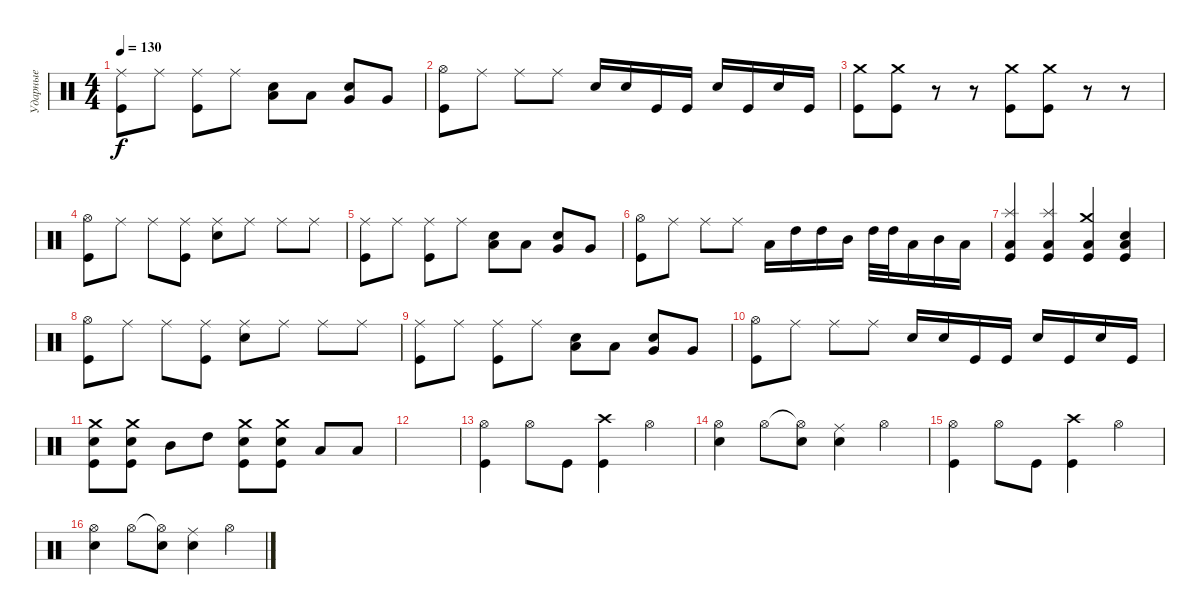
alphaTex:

\track ("Ударные" "Ударные") {instrument percussion}
\staff {score}
\articulation defaults
\ts (4 4)
\tempo 130
\clef neutral
\ks c
("Kick (hit)" "Ride (middle)").8{dy f} "Ride (middle)".8 ("Kick (hit)" "Ride (middle)").8 "Ride (middle)".8 ("Low Tom (hit)" "Electric Snare (hit)").8 "Low Tom (hit)".8 ("Very Low Tom (hit)" "Electric Snare (hit)").8 "Very Low Tom (hit)".8 |
("Kick (hit)" "Hi-Hat (open)").8 "Ride (middle)".8 "Ride (middle)".8 "Ride (middle)".8 "Electric Snare (hit)".16 "Electric Snare (hit)".16 "Kick (hit)".16 "Kick (hit)".16 "Electric Snare (hit)".16 "Kick (hit)".16 "Electric Snare (hit)".16 "Kick (hit)".16 |
("Crash medium (hit)" "Kick (hit)").8 ("Crash medium (hit)" "Kick (hit)").8 r.8 r.8 ("Crash medium (hit)" "Kick (hit)").8 ("Crash medium (hit)" "Kick (hit)").8 r.8 r.8 |
("Kick (hit)" "Hi-Hat (open)").8 "Ride (middle)".8 "Ride (middle)".8 ("Kick (hit)" "Ride (middle)").8 ("Electric Snare (hit)" "Ride (middle)").8 "Ride (middle)".8 "Ride (middle)".8 "Ride (middle)".8 |
("Kick (hit)" "Ride (middle)").8 "Ride (middle)".8 ("Kick (hit)" "Ride (middle)").8 "Ride (middle)".8 ("Low Tom (hit)" "Electric Snare (hit)").8 "Low Tom (hit)".8 ("Very Low Tom (hit)" "Electric Snare (hit)").8 "Very Low Tom (hit)".8 |
("Kick (hit)" "Hi-Hat (open)").8 "Ride (middle)".8 "Ride (middle)".8 "Ride (middle)".8 "Low Tom (hit)".16 "High Tom (hit)".16 "High Tom (hit)".16 "Mid Tom (hit)".16 "High Tom (hit)".32 "High Tom (hit)".32 "Low Tom (hit)".16 "Mid Tom (hit)".16 "Low Tom (hit)".16 |
("Splash (hit)" "Kick (hit)" "Low Floor Tom (hit)").4 ("Splash (hit)" "Kick (hit)" "Low Floor Tom (hit)").4 ("Crash medium (hit)" "Kick (hit)" "Low Floor Tom (hit)").4 ("Electric Snare (hit)" "Kick (hit)" "Low Floor Tom (hit)").4 |
("Kick (hit)" "Hi-Hat (open)").8 "Ride (middle)".8 "Ride (middle)".8 ("Kick (hit)" "Ride (middle)").8 ("Electric Snare (hit)" "Ride (middle)").8 "Ride (middle)".8 "Ride (middle)".8 "Ride (middle)".8 |
("Kick (hit)" "Ride (middle)").8 "Ride (middle)".8 ("Kick (hit)" "Ride (middle)").8 "Ride (middle)".8 ("Low Tom (hit)" "Electric Snare (hit)").8 "Low Tom (hit)".8 ("Very Low Tom (hit)" "Electric Snare (hit)").8 "Very Low Tom (hit)".8 |
("Kick (hit)" "Hi-Hat (open)").8 "Ride (middle)".8 "Ride (middle)".8 "Ride (middle)".8 "Electric Snare (hit)".16 "Electric Snare (hit)".16 "Kick (hit)".16 "Kick (hit)".16 "Electric Snare (hit)".16 "Kick (hit)".16 "Electric Snare (hit)".16 "Kick (hit)".16 |
("Crash medium (hit)" "Electric Snare (hit)" "Kick (hit)").8 ("Crash medium (hit)" "Electric Snare (hit)" "Kick (hit)").8 "Mid Tom (hit)".8 "High Tom (hit)".8 ("Crash medium (hit)" "Electric Snare (hit)" "Kick (hit)").8 ("Crash medium (hit)" "Electric Snare (hit)" "Kick (hit)").8 "Low Tom (hit)".8 "Low Tom (hit)".8 |
|
("Hi-Hat (open)" "Kick (hit)").4 "Hi-Hat (open)".8 "Kick (hit)".8 ("Crash high (hit)" "Kick (hit)").4 "Hi-Hat (open)".4 |
("Electric Snare (hit)" "Hi-Hat (open)").4 "Hi-Hat (open)".8 ("Hi-Hat (open)"{t} "Electric Snare (hit)").8 ("Ride (middle)" "Electric Snare (hit)").4 "Hi-Hat (open)".4 |
("Hi-Hat (open)" "Kick (hit)").4 "Hi-Hat (open)".8 "Kick (hit)".8 ("Crash high (hit)" "Kick (hit)").4 "Hi-Hat (open)".4 |
("Electric Snare (hit)" "Hi-Hat (open)").4 "Hi-Hat (open)".8 ("Hi-Hat (open)"{t} "Electric Snare (hit)").8 ("Ride (middle)" "Electric Snare (hit)").4 "Hi-Hat (open)".4
